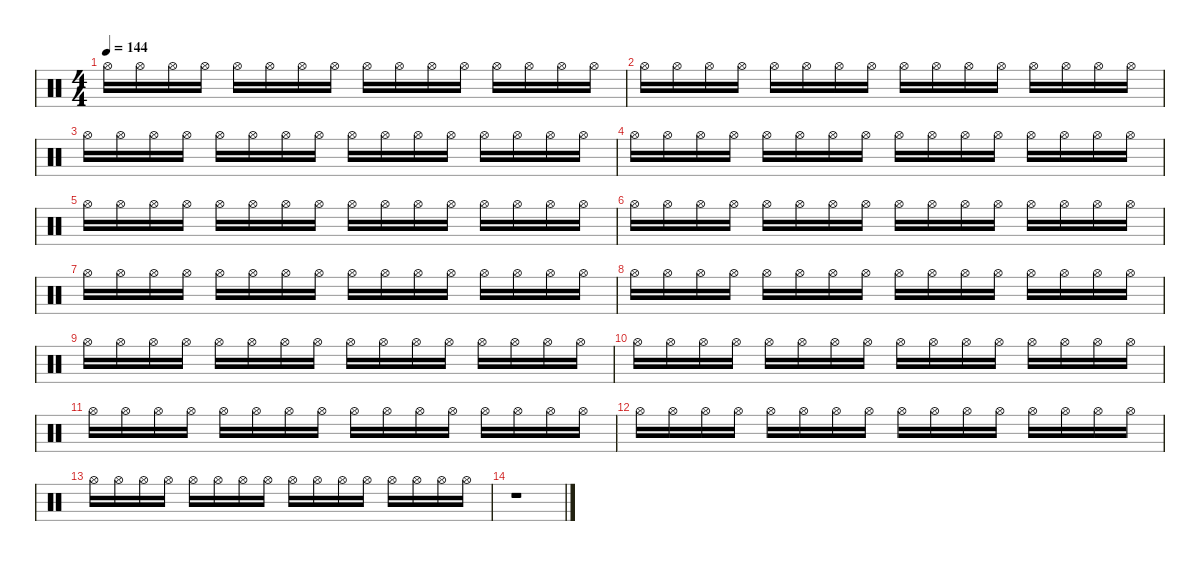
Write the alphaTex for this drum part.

\defaultSystemsLayout 4
\hideDynamics
\bracketExtendMode nobrackets
\singleTrackTrackNamePolicy hidden
\multiTrackTrackNamePolicy hidden
\firstSystemTrackNameMode fullname
\firstSystemTrackNameOrientation horizontal
\otherSystemsTrackNameOrientation horizontal
\track ("Bateria" "drm.") {instrument percussion}
\staff {score}
\articulation defaults
\ts (4 4)
\tempo 144
\clef neutral
\ks c "Hi-Hat (open)".16{dy f beam Down} "Hi-Hat (open)".16{beam Down} "Hi-Hat (open)".16{beam Down} "Hi-Hat (open)".16{beam Down} "Hi-Hat (open)".16{beam Down} "Hi-Hat (open)".16{beam Down} "Hi-Hat (open)".16{beam Down} "Hi-Hat (open)".16{beam Down} "Hi-Hat (open)".16{beam Down} "Hi-Hat (open)".16{beam Down} "Hi-Hat (open)".16{beam Down} "Hi-Hat (open)".16{beam Down} "Hi-Hat (open)".16{beam Down} "Hi-Hat (open)".16{beam Down} "Hi-Hat (open)".16{beam Down} "Hi-Hat (open)".16{beam Down}
|
"Hi-Hat (open)".16{beam Down} "Hi-Hat (open)".16{beam Down} "Hi-Hat (open)".16{beam Down} "Hi-Hat (open)".16{beam Down} "Hi-Hat (open)".16{beam Down} "Hi-Hat (open)".16{beam Down} "Hi-Hat (open)".16{beam Down} "Hi-Hat (open)".16{beam Down} "Hi-Hat (open)".16{beam Down} "Hi-Hat (open)".16{beam Down} "Hi-Hat (open)".16{beam Down} "Hi-Hat (open)".16{beam Down} "Hi-Hat (open)".16{beam Down} "Hi-Hat (open)".16{beam Down} "Hi-Hat (open)".16{beam Down} "Hi-Hat (open)".16{beam Down} |
"Hi-Hat (open)".16{beam Down} "Hi-Hat (open)".16{beam Down} "Hi-Hat (open)".16{beam Down} "Hi-Hat (open)".16{beam Down} "Hi-Hat (open)".16{beam Down} "Hi-Hat (open)".16{beam Down} "Hi-Hat (open)".16{beam Down} "Hi-Hat (open)".16{beam Down} "Hi-Hat (open)".16{beam Down} "Hi-Hat (open)".16{beam Down} "Hi-Hat (open)".16{beam Down} "Hi-Hat (open)".16{beam Down} "Hi-Hat (open)".16{beam Down} "Hi-Hat (open)".16{beam Down} "Hi-Hat (open)".16{beam Down} "Hi-Hat (open)".16{beam Down} |
"Hi-Hat (open)".16{beam Down} "Hi-Hat (open)".16{beam Down} "Hi-Hat (open)".16{beam Down} "Hi-Hat (open)".16{beam Down} "Hi-Hat (open)".16{beam Down} "Hi-Hat (open)".16{beam Down} "Hi-Hat (open)".16{beam Down} "Hi-Hat (open)".16{beam Down} "Hi-Hat (open)".16{beam Down} "Hi-Hat (open)".16{beam Down} "Hi-Hat (open)".16{beam Down} "Hi-Hat (open)".16{beam Down} "Hi-Hat (open)".16{beam Down} "Hi-Hat (open)".16{beam Down} "Hi-Hat (open)".16{beam Down} "Hi-Hat (open)".16{beam Down} |
"Hi-Hat (open)".16{beam Down} "Hi-Hat (open)".16{beam Down} "Hi-Hat (open)".16{beam Down} "Hi-Hat (open)".16{beam Down} "Hi-Hat (open)".16{beam Down} "Hi-Hat (open)".16{beam Down} "Hi-Hat (open)".16{beam Down} "Hi-Hat (open)".16{beam Down} "Hi-Hat (open)".16{beam Down} "Hi-Hat (open)".16{beam Down} "Hi-Hat (open)".16{beam Down} "Hi-Hat (open)".16{beam Down} "Hi-Hat (open)".16{beam Down} "Hi-Hat (open)".16{beam Down} "Hi-Hat (open)".16{beam Down} "Hi-Hat (open)".16{beam Down} |
"Hi-Hat (open)".16{beam Down} "Hi-Hat (open)".16{beam Down} "Hi-Hat (open)".16{beam Down} "Hi-Hat (open)".16{beam Down} "Hi-Hat (open)".16{beam Down} "Hi-Hat (open)".16{beam Down} "Hi-Hat (open)".16{beam Down} "Hi-Hat (open)".16{beam Down} "Hi-Hat (open)".16{beam Down} "Hi-Hat (open)".16{beam Down} "Hi-Hat (open)".16{beam Down} "Hi-Hat (open)".16{beam Down} "Hi-Hat (open)".16{beam Down} "Hi-Hat (open)".16{beam Down} "Hi-Hat (open)".16{beam Down} "Hi-Hat (open)".16{beam Down} |
"Hi-Hat (open)".16{beam Down} "Hi-Hat (open)".16{beam Down} "Hi-Hat (open)".16{beam Down} "Hi-Hat (open)".16{beam Down} "Hi-Hat (open)".16{beam Down} "Hi-Hat (open)".16{beam Down} "Hi-Hat (open)".16{beam Down} "Hi-Hat (open)".16{beam Down} "Hi-Hat (open)".16{beam Down} "Hi-Hat (open)".16{beam Down} "Hi-Hat (open)".16{beam Down} "Hi-Hat (open)".16{beam Down} "Hi-Hat (open)".16{beam Down} "Hi-Hat (open)".16{beam Down} "Hi-Hat (open)".16{beam Down} "Hi-Hat (open)".16{beam Down} |
"Hi-Hat (open)".16{beam Down} "Hi-Hat (open)".16{beam Down} "Hi-Hat (open)".16{beam Down} "Hi-Hat (open)".16{beam Down} "Hi-Hat (open)".16{beam Down} "Hi-Hat (open)".16{beam Down} "Hi-Hat (open)".16{beam Down} "Hi-Hat (open)".16{beam Down} "Hi-Hat (open)".16{beam Down} "Hi-Hat (open)".16{beam Down} "Hi-Hat (open)".16{beam Down} "Hi-Hat (open)".16{beam Down} "Hi-Hat (open)".16{beam Down} "Hi-Hat (open)".16{beam Down} "Hi-Hat (open)".16{beam Down} "Hi-Hat (open)".16{beam Down} |
"Hi-Hat (open)".16{beam Down} "Hi-Hat (open)".16{beam Down} "Hi-Hat (open)".16{beam Down} "Hi-Hat (open)".16{beam Down} "Hi-Hat (open)".16{beam Down} "Hi-Hat (open)".16{beam Down} "Hi-Hat (open)".16{beam Down} "Hi-Hat (open)".16{beam Down} "Hi-Hat (open)".16{beam Down} "Hi-Hat (open)".16{beam Down} "Hi-Hat (open)".16{beam Down} "Hi-Hat (open)".16{beam Down} "Hi-Hat (open)".16{beam Down} "Hi-Hat (open)".16{beam Down} "Hi-Hat (open)".16{beam Down} "Hi-Hat (open)".16{beam Down} |
"Hi-Hat (open)".16{beam Down} "Hi-Hat (open)".16{beam Down} "Hi-Hat (open)".16{beam Down} "Hi-Hat (open)".16{beam Down} "Hi-Hat (open)".16{beam Down} "Hi-Hat (open)".16{beam Down} "Hi-Hat (open)".16{beam Down} "Hi-Hat (open)".16{beam Down} "Hi-Hat (open)".16{beam Down} "Hi-Hat (open)".16{beam Down} "Hi-Hat (open)".16{beam Down} "Hi-Hat (open)".16{beam Down} "Hi-Hat (open)".16{beam Down} "Hi-Hat (open)".16{beam Down} "Hi-Hat (open)".16{beam Down} "Hi-Hat (open)".16{beam Down} |
"Hi-Hat (open)".16{beam Down} "Hi-Hat (open)".16{beam Down} "Hi-Hat (open)".16{beam Down} "Hi-Hat (open)".16{beam Down} "Hi-Hat (open)".16{beam Down} "Hi-Hat (open)".16{beam Down} "Hi-Hat (open)".16{beam Down} "Hi-Hat (open)".16{beam Down} "Hi-Hat (open)".16{beam Down} "Hi-Hat (open)".16{beam Down} "Hi-Hat (open)".16{beam Down} "Hi-Hat (open)".16{beam Down} "Hi-Hat (open)".16{beam Down} "Hi-Hat (open)".16{beam Down} "Hi-Hat (open)".16{beam Down} "Hi-Hat (open)".16{beam Down} |
"Hi-Hat (open)".16{beam Down} "Hi-Hat (open)".16{beam Down} "Hi-Hat (open)".16{beam Down} "Hi-Hat (open)".16{beam Down} "Hi-Hat (open)".16{beam Down} "Hi-Hat (open)".16{beam Down} "Hi-Hat (open)".16{beam Down} "Hi-Hat (open)".16{beam Down} "Hi-Hat (open)".16{beam Down} "Hi-Hat (open)".16{beam Down} "Hi-Hat (open)".16{beam Down} "Hi-Hat (open)".16{beam Down} "Hi-Hat (open)".16{beam Down} "Hi-Hat (open)".16{beam Down} "Hi-Hat (open)".16{beam Down} "Hi-Hat (open)".16{beam Down} |
"Hi-Hat (open)".16{beam Down} "Hi-Hat (open)".16{beam Down} "Hi-Hat (open)".16{beam Down} "Hi-Hat (open)".16{beam Down} "Hi-Hat (open)".16{beam Down} "Hi-Hat (open)".16{beam Down} "Hi-Hat (open)".16{beam Down} "Hi-Hat (open)".16{beam Down} "Hi-Hat (open)".16{beam Down} "Hi-Hat (open)".16{beam Down} "Hi-Hat (open)".16{beam Down} "Hi-Hat (open)".16{beam Down} "Hi-Hat (open)".16{beam Down} "Hi-Hat (open)".16{beam Down} "Hi-Hat (open)".16{beam Down} "Hi-Hat (open)".16{beam Down} |
r.1{beam Down}
